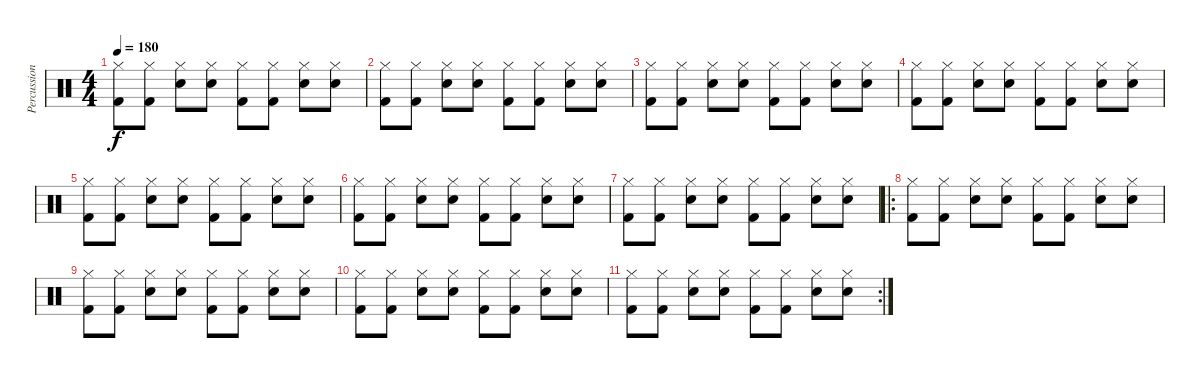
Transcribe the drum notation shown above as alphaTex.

\track ("Percussions" "Percussion") {instrument percussion}
\staff {score}
\articulation defaults
\ts (4 4)
\tempo 180
\clef neutral
\ks c
("Kick (hit) 2" "Hi-Hat (closed)").8{dy f} ("Kick (hit) 2" "Hi-Hat (closed)").8 ("Electric Snare (hit)" "Hi-Hat (closed)").8 ("Electric Snare (hit)" "Hi-Hat (closed)").8 ("Kick (hit) 2" "Hi-Hat (closed)").8 ("Kick (hit) 2" "Hi-Hat (closed)").8 ("Electric Snare (hit)" "Hi-Hat (closed)").8 ("Electric Snare (hit)" "Hi-Hat (closed)").8 |
("Kick (hit) 2" "Hi-Hat (closed)").8 ("Kick (hit) 2" "Hi-Hat (closed)").8 ("Electric Snare (hit)" "Hi-Hat (closed)").8 ("Electric Snare (hit)" "Hi-Hat (closed)").8 ("Kick (hit) 2" "Hi-Hat (closed)").8 ("Kick (hit) 2" "Hi-Hat (closed)").8 ("Electric Snare (hit)" "Hi-Hat (closed)").8 ("Electric Snare (hit)" "Hi-Hat (closed)").8 |
("Kick (hit) 2" "Hi-Hat (closed)").8 ("Kick (hit) 2" "Hi-Hat (closed)").8 ("Electric Snare (hit)" "Hi-Hat (closed)").8 ("Electric Snare (hit)" "Hi-Hat (closed)").8 ("Kick (hit) 2" "Hi-Hat (closed)").8 ("Kick (hit) 2" "Hi-Hat (closed)").8 ("Electric Snare (hit)" "Hi-Hat (closed)").8 ("Electric Snare (hit)" "Hi-Hat (closed)").8 |
("Kick (hit) 2" "Hi-Hat (closed)").8 ("Kick (hit) 2" "Hi-Hat (closed)").8 ("Electric Snare (hit)" "Hi-Hat (closed)").8 ("Electric Snare (hit)" "Hi-Hat (closed)").8 ("Kick (hit) 2" "Hi-Hat (closed)").8 ("Kick (hit) 2" "Hi-Hat (closed)").8 ("Electric Snare (hit)" "Hi-Hat (closed)").8 ("Electric Snare (hit)" "Hi-Hat (closed)").8 |
("Kick (hit) 2" "Hi-Hat (closed)").8 ("Kick (hit) 2" "Hi-Hat (closed)").8 ("Electric Snare (hit)" "Hi-Hat (closed)").8 ("Electric Snare (hit)" "Hi-Hat (closed)").8 ("Kick (hit) 2" "Hi-Hat (closed)").8 ("Kick (hit) 2" "Hi-Hat (closed)").8 ("Electric Snare (hit)" "Hi-Hat (closed)").8 ("Electric Snare (hit)" "Hi-Hat (closed)").8 |
("Kick (hit) 2" "Hi-Hat (closed)").8 ("Kick (hit) 2" "Hi-Hat (closed)").8 ("Electric Snare (hit)" "Hi-Hat (closed)").8 ("Electric Snare (hit)" "Hi-Hat (closed)").8 ("Kick (hit) 2" "Hi-Hat (closed)").8 ("Kick (hit) 2" "Hi-Hat (closed)").8 ("Electric Snare (hit)" "Hi-Hat (closed)").8 ("Electric Snare (hit)" "Hi-Hat (closed)").8 |
("Kick (hit) 2" "Hi-Hat (closed)").8 ("Kick (hit) 2" "Hi-Hat (closed)").8 ("Electric Snare (hit)" "Hi-Hat (closed)").8 ("Electric Snare (hit)" "Hi-Hat (closed)").8 ("Kick (hit) 2" "Hi-Hat (closed)").8 ("Kick (hit) 2" "Hi-Hat (closed)").8 ("Electric Snare (hit)" "Hi-Hat (closed)").8 ("Electric Snare (hit)" "Hi-Hat (closed)").8 |
\ro
("Kick (hit) 2" "Hi-Hat (closed)").8 ("Kick (hit) 2" "Hi-Hat (closed)").8 ("Electric Snare (hit)" "Hi-Hat (closed)").8 ("Electric Snare (hit)" "Hi-Hat (closed)").8 ("Kick (hit) 2" "Hi-Hat (closed)").8 ("Kick (hit) 2" "Hi-Hat (closed)").8 ("Electric Snare (hit)" "Hi-Hat (closed)").8 ("Electric Snare (hit)" "Hi-Hat (closed)").8 |
("Kick (hit) 2" "Hi-Hat (closed)").8 ("Kick (hit) 2" "Hi-Hat (closed)").8 ("Electric Snare (hit)" "Hi-Hat (closed)").8 ("Electric Snare (hit)" "Hi-Hat (closed)").8 ("Kick (hit) 2" "Hi-Hat (closed)").8 ("Kick (hit) 2" "Hi-Hat (closed)").8 ("Electric Snare (hit)" "Hi-Hat (closed)").8 ("Electric Snare (hit)" "Hi-Hat (closed)").8 |
("Kick (hit) 2" "Hi-Hat (closed)").8 ("Kick (hit) 2" "Hi-Hat (closed)").8 ("Electric Snare (hit)" "Hi-Hat (closed)").8 ("Electric Snare (hit)" "Hi-Hat (closed)").8 ("Kick (hit) 2" "Hi-Hat (closed)").8 ("Kick (hit) 2" "Hi-Hat (closed)").8 ("Electric Snare (hit)" "Hi-Hat (closed)").8 ("Electric Snare (hit)" "Hi-Hat (closed)").8 |
\rc 2
("Kick (hit) 2" "Hi-Hat (closed)").8 ("Kick (hit) 2" "Hi-Hat (closed)").8 ("Electric Snare (hit)" "Hi-Hat (closed)").8 ("Electric Snare (hit)" "Hi-Hat (closed)").8 ("Kick (hit) 2" "Hi-Hat (closed)").8 ("Kick (hit) 2" "Hi-Hat (closed)").8 ("Electric Snare (hit)" "Hi-Hat (closed)").8 ("Electric Snare (hit)" "Hi-Hat (closed)").8
